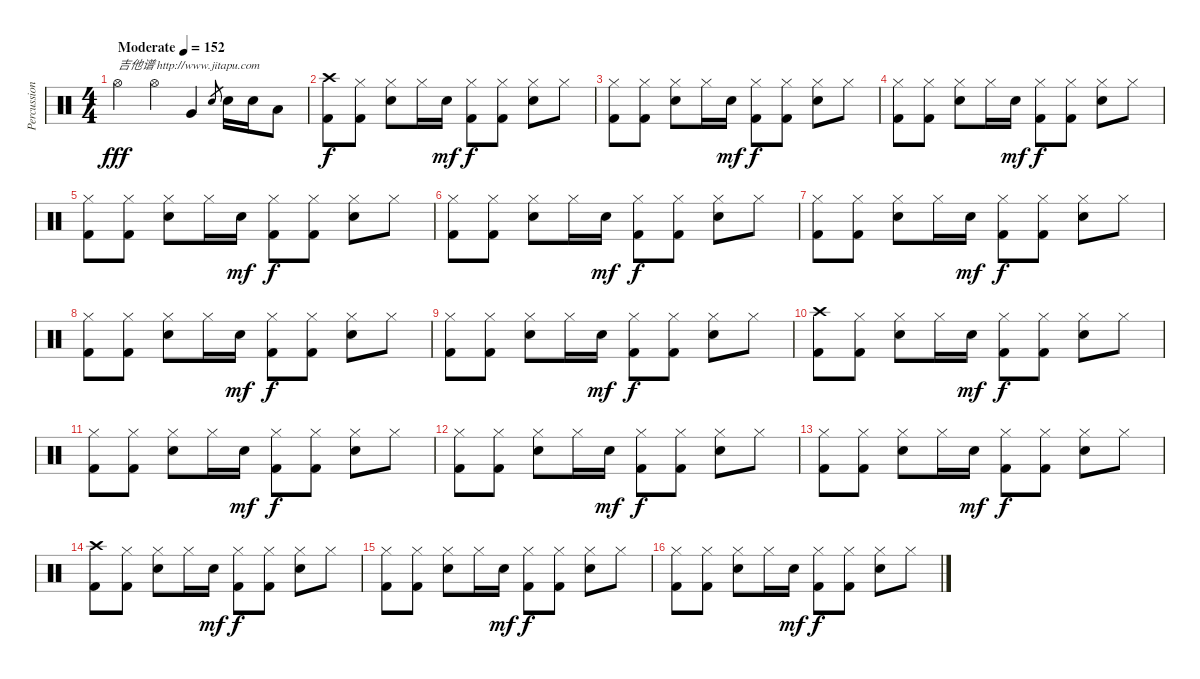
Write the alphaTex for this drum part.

\track ("Percussion" "Percussion") {instrument percussion}
\staff {score}
\articulation defaults
\ts (4 4)
\tempo (152 "Moderate")
\clef neutral
\ks c "Hi-Hat (open)".4{txt "吉他谱 http://www.jitapu.com" dy fff} "Hi-Hat (open)".4 "Very Low Tom (hit)".4 "Snare (hit) 2".8{gr} "Snare (hit) 2".16 "Snare (hit) 2".16 "Low Floor Tom (hit)".8
|
("Kick (hit) 2" "Crash high (hit)").8{dy f} ("Kick (hit) 2" "Hi-Hat (closed)").8 ("Electric Snare (hit)" "Hi-Hat (closed)").8 "Hi-Hat (closed)".16 "Electric Snare (hit)".16{dy mf} ("Kick (hit) 2" "Hi-Hat (closed)").8{dy f} ("Kick (hit) 2" "Hi-Hat (closed)").8 ("Electric Snare (hit)" "Hi-Hat (closed)").8 "Hi-Hat (closed)".8 |
("Kick (hit) 2" "Hi-Hat (closed)").8 ("Kick (hit) 2" "Hi-Hat (closed)").8 ("Electric Snare (hit)" "Hi-Hat (closed)").8 "Hi-Hat (closed)".16 "Electric Snare (hit)".16{dy mf} ("Kick (hit) 2" "Hi-Hat (closed)").8{dy f} ("Kick (hit) 2" "Hi-Hat (closed)").8 ("Electric Snare (hit)" "Hi-Hat (closed)").8 "Hi-Hat (closed)".8 |
("Kick (hit) 2" "Hi-Hat (closed)").8 ("Kick (hit) 2" "Hi-Hat (closed)").8 ("Electric Snare (hit)" "Hi-Hat (closed)").8 "Hi-Hat (closed)".16 "Electric Snare (hit)".16{dy mf} ("Kick (hit) 2" "Hi-Hat (closed)").8{dy f} ("Kick (hit) 2" "Hi-Hat (closed)").8 ("Electric Snare (hit)" "Hi-Hat (closed)").8 "Hi-Hat (closed)".8 |
("Kick (hit) 2" "Hi-Hat (closed)").8 ("Kick (hit) 2" "Hi-Hat (closed)").8 ("Electric Snare (hit)" "Hi-Hat (closed)").8 "Hi-Hat (closed)".16 "Electric Snare (hit)".16{dy mf} ("Kick (hit) 2" "Hi-Hat (closed)").8{dy f} ("Kick (hit) 2" "Hi-Hat (closed)").8 ("Electric Snare (hit)" "Hi-Hat (closed)").8 "Hi-Hat (closed)".8 |
("Kick (hit) 2" "Hi-Hat (closed)").8 ("Kick (hit) 2" "Hi-Hat (closed)").8 ("Electric Snare (hit)" "Hi-Hat (closed)").8 "Hi-Hat (closed)".16 "Electric Snare (hit)".16{dy mf} ("Kick (hit) 2" "Hi-Hat (closed)").8{dy f} ("Kick (hit) 2" "Hi-Hat (closed)").8 ("Electric Snare (hit)" "Hi-Hat (closed)").8 "Hi-Hat (closed)".8 |
("Kick (hit) 2" "Hi-Hat (closed)").8 ("Kick (hit) 2" "Hi-Hat (closed)").8 ("Electric Snare (hit)" "Hi-Hat (closed)").8 "Hi-Hat (closed)".16 "Electric Snare (hit)".16{dy mf} ("Kick (hit) 2" "Hi-Hat (closed)").8{dy f} ("Kick (hit) 2" "Hi-Hat (closed)").8 ("Electric Snare (hit)" "Hi-Hat (closed)").8 "Hi-Hat (closed)".8 |
("Kick (hit) 2" "Hi-Hat (closed)").8 ("Kick (hit) 2" "Hi-Hat (closed)").8 ("Electric Snare (hit)" "Hi-Hat (closed)").8 "Hi-Hat (closed)".16 "Electric Snare (hit)".16{dy mf} ("Kick (hit) 2" "Hi-Hat (closed)").8{dy f} ("Kick (hit) 2" "Hi-Hat (closed)").8 ("Electric Snare (hit)" "Hi-Hat (closed)").8 "Hi-Hat (closed)".8 |
("Kick (hit) 2" "Hi-Hat (closed)").8 ("Kick (hit) 2" "Hi-Hat (closed)").8 ("Electric Snare (hit)" "Hi-Hat (closed)").8 "Hi-Hat (closed)".16 "Electric Snare (hit)".16{dy mf} ("Kick (hit) 2" "Hi-Hat (closed)").8{dy f} ("Kick (hit) 2" "Hi-Hat (closed)").8 ("Electric Snare (hit)" "Hi-Hat (closed)").8 "Hi-Hat (closed)".8 |
("Kick (hit) 2" "Crash high (hit)").8 ("Kick (hit) 2" "Hi-Hat (closed)").8 ("Electric Snare (hit)" "Hi-Hat (closed)").8 "Hi-Hat (closed)".16 "Electric Snare (hit)".16{dy mf} ("Kick (hit) 2" "Hi-Hat (closed)").8{dy f} ("Kick (hit) 2" "Hi-Hat (closed)").8 ("Electric Snare (hit)" "Hi-Hat (closed)").8 "Hi-Hat (closed)".8 |
("Kick (hit) 2" "Hi-Hat (closed)").8 ("Kick (hit) 2" "Hi-Hat (closed)").8 ("Electric Snare (hit)" "Hi-Hat (closed)").8 "Hi-Hat (closed)".16 "Electric Snare (hit)".16{dy mf} ("Kick (hit) 2" "Hi-Hat (closed)").8{dy f} ("Kick (hit) 2" "Hi-Hat (closed)").8 ("Electric Snare (hit)" "Hi-Hat (closed)").8 "Hi-Hat (closed)".8 |
("Kick (hit) 2" "Hi-Hat (closed)").8 ("Kick (hit) 2" "Hi-Hat (closed)").8 ("Electric Snare (hit)" "Hi-Hat (closed)").8 "Hi-Hat (closed)".16 "Electric Snare (hit)".16{dy mf} ("Kick (hit) 2" "Hi-Hat (closed)").8{dy f} ("Kick (hit) 2" "Hi-Hat (closed)").8 ("Electric Snare (hit)" "Hi-Hat (closed)").8 "Hi-Hat (closed)".8 |
("Kick (hit) 2" "Hi-Hat (closed)").8 ("Kick (hit) 2" "Hi-Hat (closed)").8 ("Electric Snare (hit)" "Hi-Hat (closed)").8 "Hi-Hat (closed)".16 "Electric Snare (hit)".16{dy mf} ("Kick (hit) 2" "Hi-Hat (closed)").8{dy f} ("Kick (hit) 2" "Hi-Hat (closed)").8 ("Electric Snare (hit)" "Hi-Hat (closed)").8 "Hi-Hat (closed)".8 |
("Kick (hit) 2" "Crash high (hit)").8 ("Kick (hit) 2" "Hi-Hat (closed)").8 ("Electric Snare (hit)" "Hi-Hat (closed)").8 "Hi-Hat (closed)".16 "Electric Snare (hit)".16{dy mf} ("Kick (hit) 2" "Hi-Hat (closed)").8{dy f} ("Kick (hit) 2" "Hi-Hat (closed)").8 ("Electric Snare (hit)" "Hi-Hat (closed)").8 "Hi-Hat (closed)".8 |
("Kick (hit) 2" "Hi-Hat (closed)").8 ("Kick (hit) 2" "Hi-Hat (closed)").8 ("Electric Snare (hit)" "Hi-Hat (closed)").8 "Hi-Hat (closed)".16 "Electric Snare (hit)".16{dy mf} ("Kick (hit) 2" "Hi-Hat (closed)").8{dy f} ("Kick (hit) 2" "Hi-Hat (closed)").8 ("Electric Snare (hit)" "Hi-Hat (closed)").8 "Hi-Hat (closed)".8 |
("Kick (hit) 2" "Hi-Hat (closed)").8 ("Kick (hit) 2" "Hi-Hat (closed)").8 ("Electric Snare (hit)" "Hi-Hat (closed)").8 "Hi-Hat (closed)".16 "Electric Snare (hit)".16{dy mf} ("Kick (hit) 2" "Hi-Hat (closed)").8{dy f} ("Kick (hit) 2" "Hi-Hat (closed)").8 ("Electric Snare (hit)" "Hi-Hat (closed)").8 "Hi-Hat (closed)".8
